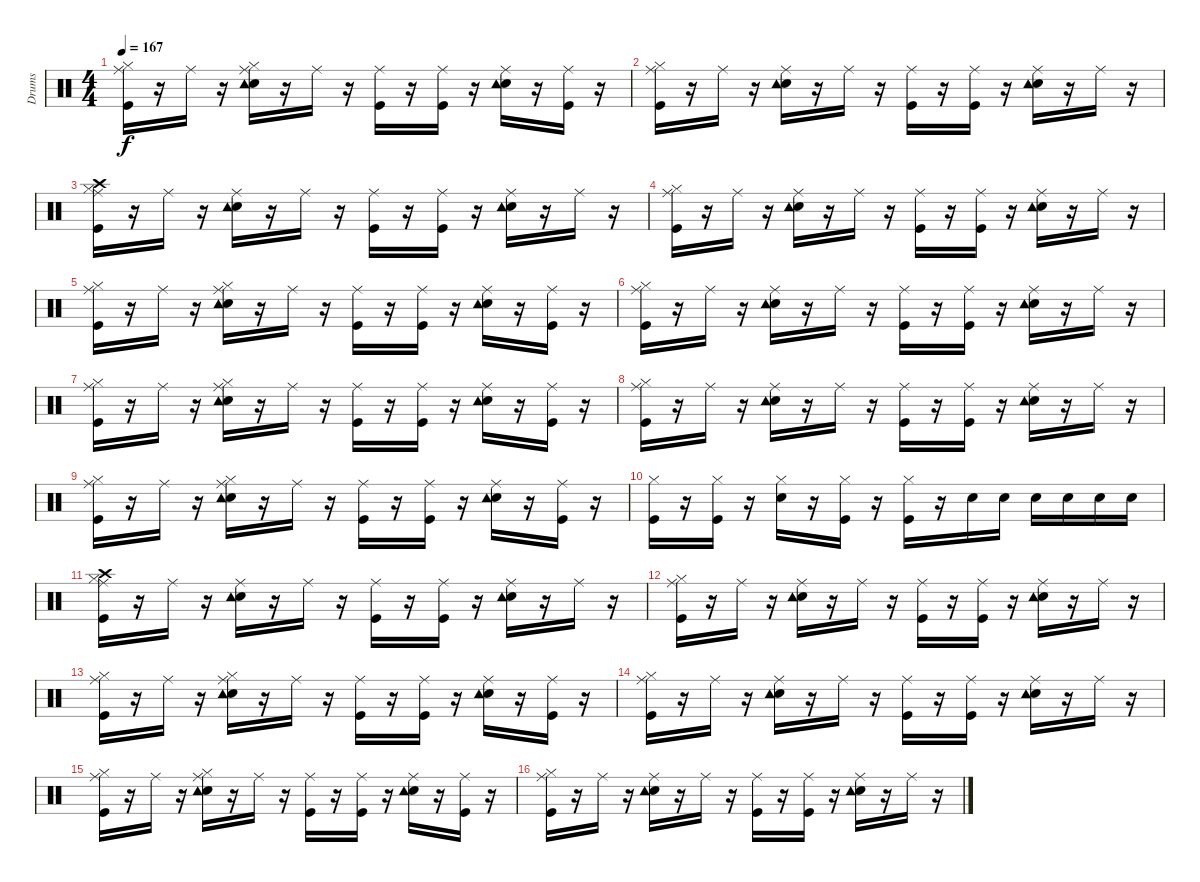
\track ("Drums" "Drums") {instrument percussion}
\staff {score}
\articulation defaults
\ts (4 4)
\tempo 167
\clef neutral
\ks c
("Kick (hit)" "Hi-Hat (closed)" "Ride (middle)").16{dy f} r.16 "Ride (middle)".16 r.16 ("Snare (hit) 2" "Hi-Hat (closed)" "Ride (middle)" "Tambourine (hit)").16 r.16 "Ride (middle)".16 r.16 ("Kick (hit)" "Ride (middle)").16 r.16 ("Kick (hit)" "Ride (middle)").16 r.16 ("Snare (hit) 2" "Ride (middle)" "Tambourine (hit)").16 r.16 ("Kick (hit)" "Ride (middle)").16 r.16 |
("Kick (hit)" "Hi-Hat (closed)" "Ride (middle)").16 r.16 "Ride (middle)".16 r.16 ("Snare (hit) 2" "Ride (middle)" "Tambourine (hit)").16 r.16 "Ride (middle)".16 r.16 ("Kick (hit)" "Ride (middle)").16 r.16 ("Kick (hit)" "Ride (middle)").16 r.16 ("Snare (hit) 2" "Ride (middle)" "Tambourine (hit)").16 r.16 "Ride (middle)".16 r.16 |
("Kick (hit)" "Hi-Hat (closed)" "Ride (middle)" "Crash high (hit)").16 r.16 "Ride (middle)".16 r.16 ("Snare (hit) 2" "Ride (middle)" "Tambourine (hit)").16 r.16 "Ride (middle)".16 r.16 ("Kick (hit)" "Ride (middle)").16 r.16 ("Kick (hit)" "Ride (middle)").16 r.16 ("Snare (hit) 2" "Ride (middle)" "Tambourine (hit)").16 r.16 "Ride (middle)".16 r.16 |
("Kick (hit)" "Hi-Hat (closed)" "Ride (middle)").16 r.16 "Ride (middle)".16 r.16 ("Snare (hit) 2" "Ride (middle)" "Tambourine (hit)").16 r.16 "Ride (middle)".16 r.16 ("Kick (hit)" "Ride (middle)").16 r.16 ("Kick (hit)" "Ride (middle)").16 r.16 ("Snare (hit) 2" "Ride (middle)" "Tambourine (hit)").16 r.16 "Ride (middle)".16 r.16 |
("Kick (hit)" "Hi-Hat (closed)" "Ride (middle)").16 r.16 "Ride (middle)".16 r.16 ("Snare (hit) 2" "Hi-Hat (closed)" "Ride (middle)" "Tambourine (hit)").16 r.16 "Ride (middle)".16 r.16 ("Kick (hit)" "Ride (middle)").16 r.16 ("Kick (hit)" "Ride (middle)").16 r.16 ("Snare (hit) 2" "Ride (middle)" "Tambourine (hit)").16 r.16 ("Kick (hit)" "Ride (middle)").16 r.16 |
("Kick (hit)" "Hi-Hat (closed)" "Ride (middle)").16 r.16 "Ride (middle)".16 r.16 ("Snare (hit) 2" "Ride (middle)" "Tambourine (hit)").16 r.16 "Ride (middle)".16 r.16 ("Kick (hit)" "Ride (middle)").16 r.16 ("Kick (hit)" "Ride (middle)").16 r.16 ("Snare (hit) 2" "Ride (middle)" "Tambourine (hit)").16 r.16 "Ride (middle)".16 r.16 |
("Kick (hit)" "Hi-Hat (closed)" "Ride (middle)").16 r.16 "Ride (middle)".16 r.16 ("Snare (hit) 2" "Hi-Hat (closed)" "Ride (middle)" "Tambourine (hit)").16 r.16 "Ride (middle)".16 r.16 ("Kick (hit)" "Ride (middle)").16 r.16 ("Kick (hit)" "Ride (middle)").16 r.16 ("Snare (hit) 2" "Ride (middle)" "Tambourine (hit)").16 r.16 ("Kick (hit)" "Ride (middle)").16 r.16 |
("Kick (hit)" "Hi-Hat (closed)" "Ride (middle)").16 r.16 "Ride (middle)".16 r.16 ("Snare (hit) 2" "Ride (middle)" "Tambourine (hit)").16 r.16 "Ride (middle)".16 r.16 ("Kick (hit)" "Ride (middle)").16 r.16 ("Kick (hit)" "Ride (middle)").16 r.16 ("Snare (hit) 2" "Ride (middle)" "Tambourine (hit)").16 r.16 "Ride (middle)".16 r.16 |
("Kick (hit)" "Hi-Hat (closed)" "Ride (middle)").16 r.16 "Ride (middle)".16 r.16 ("Snare (hit) 2" "Hi-Hat (closed)" "Ride (middle)" "Tambourine (hit)").16 r.16 "Ride (middle)".16 r.16 ("Kick (hit)" "Ride (middle)").16 r.16 ("Kick (hit)" "Ride (middle)").16 r.16 ("Snare (hit) 2" "Ride (middle)" "Tambourine (hit)").16 r.16 ("Kick (hit)" "Ride (middle)").16 r.16 |
("Kick (hit)" "Hi-Hat (closed)").16 r.16 ("Kick (hit)" "Hi-Hat (closed)").16 r.16 ("Snare (hit) 2" "Hi-Hat (closed)").16 r.16 ("Kick (hit)" "Hi-Hat (closed)").16 r.16 ("Kick (hit)" "Hi-Hat (closed)").16 r.16 "Snare (hit) 2".16 "Snare (hit) 2".16 "Snare (hit) 2".16 "Snare (hit) 2".16 "Snare (hit) 2".16 "Snare (hit) 2".16 |
("Kick (hit)" "Hi-Hat (closed)" "Ride (middle)" "Crash high (hit)").16 r.16 "Ride (middle)".16 r.16 ("Snare (hit) 2" "Ride (middle)" "Tambourine (hit)").16 r.16 "Ride (middle)".16 r.16 ("Kick (hit)" "Ride (middle)").16 r.16 ("Kick (hit)" "Ride (middle)").16 r.16 ("Snare (hit) 2" "Ride (middle)" "Tambourine (hit)").16 r.16 "Ride (middle)".16 r.16 |
("Kick (hit)" "Hi-Hat (closed)" "Ride (middle)").16 r.16 "Ride (middle)".16 r.16 ("Snare (hit) 2" "Ride (middle)" "Tambourine (hit)").16 r.16 "Ride (middle)".16 r.16 ("Kick (hit)" "Ride (middle)").16 r.16 ("Kick (hit)" "Ride (middle)").16 r.16 ("Snare (hit) 2" "Ride (middle)" "Tambourine (hit)").16 r.16 "Ride (middle)".16 r.16 |
("Kick (hit)" "Hi-Hat (closed)" "Ride (middle)").16 r.16 "Ride (middle)".16 r.16 ("Snare (hit) 2" "Hi-Hat (closed)" "Ride (middle)" "Tambourine (hit)").16 r.16 "Ride (middle)".16 r.16 ("Kick (hit)" "Ride (middle)").16 r.16 ("Kick (hit)" "Ride (middle)").16 r.16 ("Snare (hit) 2" "Ride (middle)" "Tambourine (hit)").16 r.16 ("Kick (hit)" "Ride (middle)").16 r.16 |
("Kick (hit)" "Hi-Hat (closed)" "Ride (middle)").16 r.16 "Ride (middle)".16 r.16 ("Snare (hit) 2" "Ride (middle)" "Tambourine (hit)").16 r.16 "Ride (middle)".16 r.16 ("Kick (hit)" "Ride (middle)").16 r.16 ("Kick (hit)" "Ride (middle)").16 r.16 ("Snare (hit) 2" "Ride (middle)" "Tambourine (hit)").16 r.16 "Ride (middle)".16 r.16 |
("Kick (hit)" "Hi-Hat (closed)" "Ride (middle)").16 r.16 "Ride (middle)".16 r.16 ("Snare (hit) 2" "Hi-Hat (closed)" "Ride (middle)" "Tambourine (hit)").16 r.16 "Ride (middle)".16 r.16 ("Kick (hit)" "Ride (middle)").16 r.16 ("Kick (hit)" "Ride (middle)").16 r.16 ("Snare (hit) 2" "Ride (middle)" "Tambourine (hit)").16 r.16 ("Kick (hit)" "Ride (middle)").16 r.16 |
("Kick (hit)" "Hi-Hat (closed)" "Ride (middle)").16 r.16 "Ride (middle)".16 r.16 ("Snare (hit) 2" "Ride (middle)" "Tambourine (hit)").16 r.16 "Ride (middle)".16 r.16 ("Kick (hit)" "Ride (middle)").16 r.16 ("Kick (hit)" "Ride (middle)").16 r.16 ("Snare (hit) 2" "Ride (middle)" "Tambourine (hit)").16 r.16 "Ride (middle)".16 r.16
